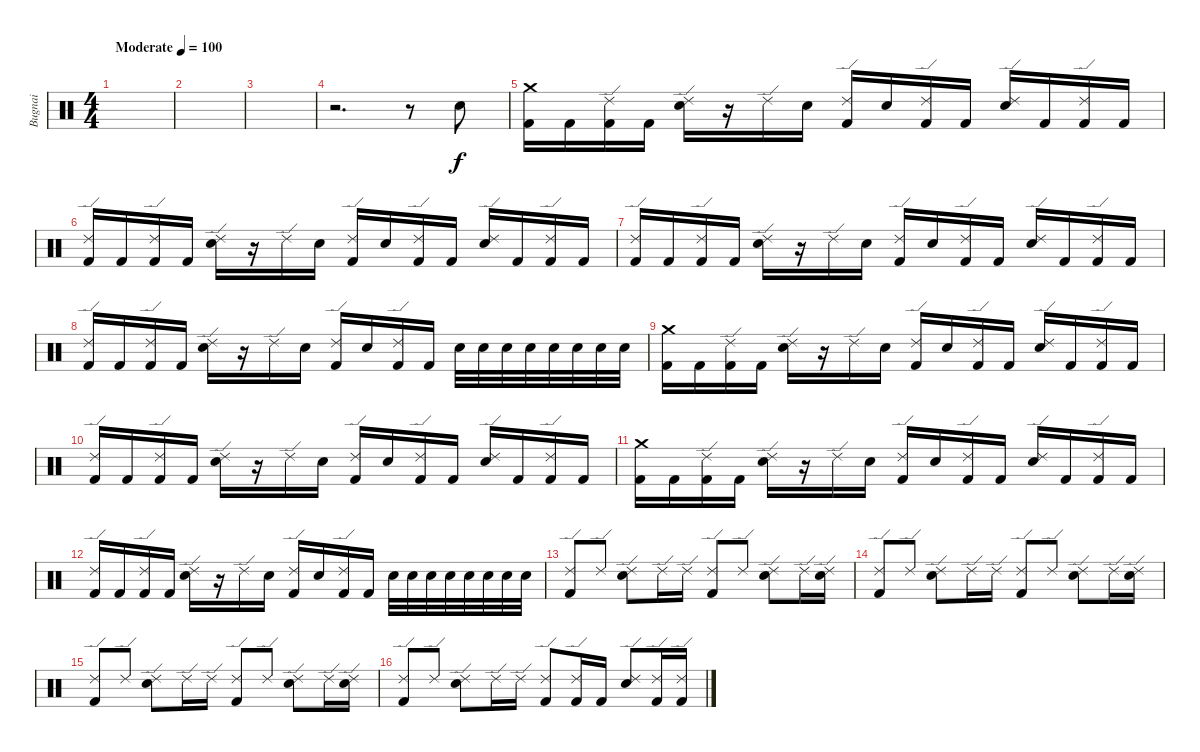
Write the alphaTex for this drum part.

\track ("Bugnai" "Bugnai") {instrument percussion}
\staff {score}
\articulation defaults
\ts (4 4)
\tempo (100 "Moderate")
\clef neutral
\ks c
|
|
|
r.2{d} r.8 "Electric Snare (hit)".8 |
("Crash medium (hit)" "Kick (hit) 2").16 "Kick (hit) 2".16 ("Ride (edge) 2" "Kick (hit) 2").16 "Kick (hit) 2".16 ("Ride (edge) 2" "Electric Snare (hit)").16 r.16 "Ride (edge) 2".16 "Electric Snare (hit)".16 ("Ride (edge) 2" "Kick (hit) 2").16 "Electric Snare (hit)".16 ("Ride (edge) 2" "Kick (hit) 2").16 "Kick (hit) 2".16 ("Ride (edge) 2" "Electric Snare (hit)").16 "Kick (hit) 2".16 ("Ride (edge) 2" "Kick (hit) 2").16 "Kick (hit) 2".16 |
("Ride (edge) 2" "Kick (hit) 2").16 "Kick (hit) 2".16 ("Ride (edge) 2" "Kick (hit) 2").16 "Kick (hit) 2".16 ("Ride (edge) 2" "Electric Snare (hit)").16 r.16 "Ride (edge) 2".16 "Electric Snare (hit)".16 ("Ride (edge) 2" "Kick (hit) 2").16 "Electric Snare (hit)".16 ("Ride (edge) 2" "Kick (hit) 2").16 "Kick (hit) 2".16 ("Ride (edge) 2" "Electric Snare (hit)").16 "Kick (hit) 2".16 ("Ride (edge) 2" "Kick (hit) 2").16 "Kick (hit) 2".16 |
("Ride (edge) 2" "Kick (hit) 2").16 "Kick (hit) 2".16 ("Ride (edge) 2" "Kick (hit) 2").16 "Kick (hit) 2".16 ("Ride (edge) 2" "Electric Snare (hit)").16 r.16 "Ride (edge) 2".16 "Electric Snare (hit)".16 ("Ride (edge) 2" "Kick (hit) 2").16 "Electric Snare (hit)".16 ("Ride (edge) 2" "Kick (hit) 2").16 "Kick (hit) 2".16 ("Ride (edge) 2" "Electric Snare (hit)").16 "Kick (hit) 2".16 ("Ride (edge) 2" "Kick (hit) 2").16 "Kick (hit) 2".16 |
("Ride (edge) 2" "Kick (hit) 2").16 "Kick (hit) 2".16 ("Ride (edge) 2" "Kick (hit) 2").16 "Kick (hit) 2".16 ("Ride (edge) 2" "Electric Snare (hit)").16 r.16 "Ride (edge) 2".16 "Electric Snare (hit)".16 ("Ride (edge) 2" "Kick (hit) 2").16 "Electric Snare (hit)".16 ("Ride (edge) 2" "Kick (hit) 2").16 "Kick (hit) 2".16 "Electric Snare (hit)".32 "Electric Snare (hit)".32 "Electric Snare (hit)".32 "Electric Snare (hit)".32 "Electric Snare (hit)".32 "Electric Snare (hit)".32 "Electric Snare (hit)".32 "Electric Snare (hit)".32 |
("Crash medium (hit)" "Kick (hit) 2").16 "Kick (hit) 2".16 ("Ride (edge) 2" "Kick (hit) 2").16 "Kick (hit) 2".16 ("Ride (edge) 2" "Electric Snare (hit)").16 r.16 "Ride (edge) 2".16 "Electric Snare (hit)".16 ("Ride (edge) 2" "Kick (hit) 2").16 "Electric Snare (hit)".16 ("Ride (edge) 2" "Kick (hit) 2").16 "Kick (hit) 2".16 ("Ride (edge) 2" "Electric Snare (hit)").16 "Kick (hit) 2".16 ("Ride (edge) 2" "Kick (hit) 2").16 "Kick (hit) 2".16 |
("Ride (edge) 2" "Kick (hit) 2").16 "Kick (hit) 2".16 ("Ride (edge) 2" "Kick (hit) 2").16 "Kick (hit) 2".16 ("Ride (edge) 2" "Electric Snare (hit)").16 r.16 "Ride (edge) 2".16 "Electric Snare (hit)".16 ("Ride (edge) 2" "Kick (hit) 2").16 "Electric Snare (hit)".16 ("Ride (edge) 2" "Kick (hit) 2").16 "Kick (hit) 2".16 ("Ride (edge) 2" "Electric Snare (hit)").16 "Kick (hit) 2".16 ("Ride (edge) 2" "Kick (hit) 2").16 "Kick (hit) 2".16 |
("Crash medium (hit)" "Kick (hit) 2").16 "Kick (hit) 2".16 ("Ride (edge) 2" "Kick (hit) 2").16 "Kick (hit) 2".16 ("Ride (edge) 2" "Electric Snare (hit)").16 r.16 "Ride (edge) 2".16 "Electric Snare (hit)".16 ("Ride (edge) 2" "Kick (hit) 2").16 "Electric Snare (hit)".16 ("Ride (edge) 2" "Kick (hit) 2").16 "Kick (hit) 2".16 ("Ride (edge) 2" "Electric Snare (hit)").16 "Kick (hit) 2".16 ("Ride (edge) 2" "Kick (hit) 2").16 "Kick (hit) 2".16 |
("Ride (edge) 2" "Kick (hit) 2").16 "Kick (hit) 2".16 ("Ride (edge) 2" "Kick (hit) 2").16 "Kick (hit) 2".16 ("Ride (edge) 2" "Electric Snare (hit)").16 r.16 "Ride (edge) 2".16 "Electric Snare (hit)".16 ("Ride (edge) 2" "Kick (hit) 2").16 "Electric Snare (hit)".16 ("Ride (edge) 2" "Kick (hit) 2").16 "Kick (hit) 2".16 "Electric Snare (hit)".32 "Electric Snare (hit)".32 "Electric Snare (hit)".32 "Electric Snare (hit)".32 "Electric Snare (hit)".32 "Electric Snare (hit)".32 "Electric Snare (hit)".32 "Electric Snare (hit)".32 |
("Ride (edge) 2" "Kick (hit) 2").8 "Ride (edge) 2".8 ("Ride (edge) 2" "Electric Snare (hit)").8 "Ride (edge) 2".16 "Ride (edge) 2".16 ("Ride (edge) 2" "Kick (hit) 2").8 "Ride (edge) 2".8 ("Ride (edge) 2" "Electric Snare (hit)").8 "Ride (edge) 2".16 ("Ride (edge) 2" "Electric Snare (hit)").16 |
("Ride (edge) 2" "Kick (hit) 2").8 "Ride (edge) 2".8 ("Ride (edge) 2" "Electric Snare (hit)").8 "Ride (edge) 2".16 "Ride (edge) 2".16 ("Ride (edge) 2" "Kick (hit) 2").8 "Ride (edge) 2".8 ("Ride (edge) 2" "Electric Snare (hit)").8 "Ride (edge) 2".16 ("Ride (edge) 2" "Electric Snare (hit)").16 |
("Ride (edge) 2" "Kick (hit) 2").8 "Ride (edge) 2".8 ("Ride (edge) 2" "Electric Snare (hit)").8 "Ride (edge) 2".16 "Ride (edge) 2".16 ("Ride (edge) 2" "Kick (hit) 2").8 "Ride (edge) 2".8 ("Ride (edge) 2" "Electric Snare (hit)").8 "Ride (edge) 2".16 ("Ride (edge) 2" "Electric Snare (hit)").16 |
("Ride (edge) 2" "Kick (hit) 2").8 "Ride (edge) 2".8 ("Ride (edge) 2" "Electric Snare (hit)").8 "Ride (edge) 2".16 "Ride (edge) 2".16 ("Ride (edge) 2" "Kick (hit) 2").8 ("Ride (edge) 2" "Kick (hit) 2").16 "Kick (hit) 2".16 ("Ride (edge) 2" "Electric Snare (hit)").8 ("Ride (edge) 2" "Kick (hit) 2").16 ("Ride (edge) 2" "Kick (hit) 2").16
